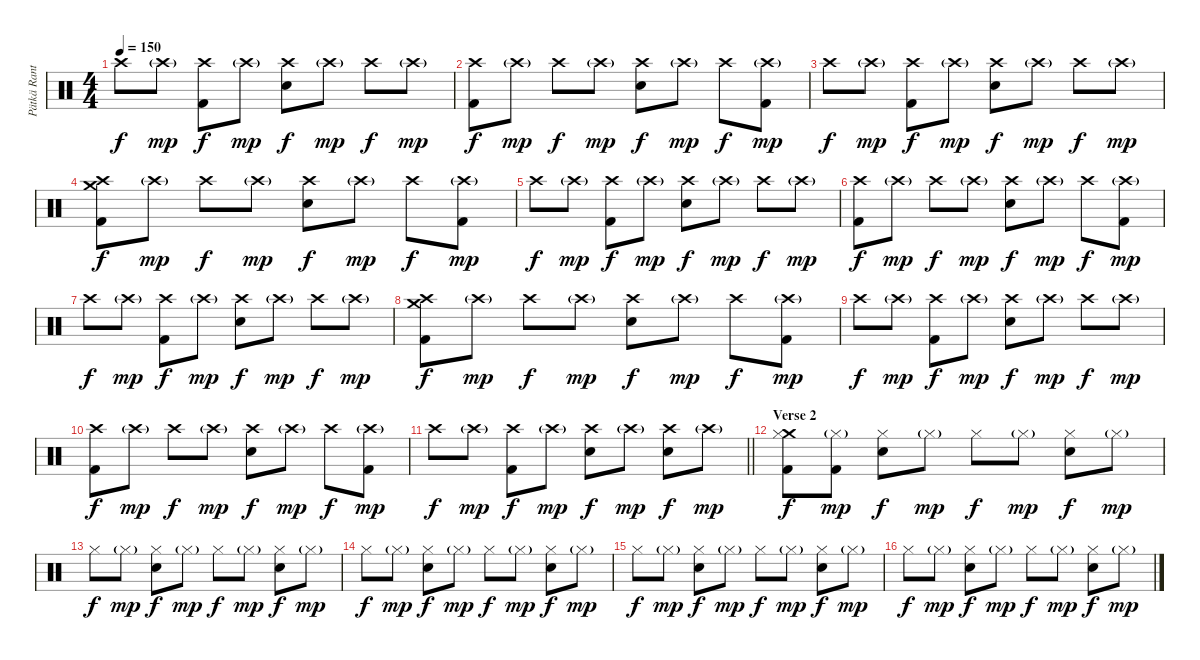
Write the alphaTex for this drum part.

\track ("Pätkä Rantala (Drums)" "Pätkä Rant") {instrument percussion}
\staff {score}
\articulation defaults
\ts (4 4)
\tempo 150
\clef neutral
\ks c "Crash high (hit)".8{dy f} "Crash high (hit)"{g}.8{dy mp}
("Crash high (hit)" "Kick (hit) 2").8{dy f} "Crash high (hit)"{g}.8{dy mp} ("Crash high (hit)" "Snare (hit) 2").8{dy f} "Crash high (hit)"{g}.8{dy mp} "Crash high (hit)".8{dy f} "Crash high (hit)"{g}.8{dy mp} |
("Crash high (hit)" "Kick (hit) 2").8{dy f} "Crash high (hit)"{g}.8{dy mp} "Crash high (hit)".8{dy f} "Crash high (hit)"{g}.8{dy mp} ("Crash high (hit)" "Snare (hit) 2").8{dy f} "Crash high (hit)"{g}.8{dy mp} "Crash high (hit)".8{dy f} ("Crash high (hit)"{g} "Kick (hit) 2").8{dy mp} |
"Crash high (hit)".8{dy f} "Crash high (hit)"{g}.8{dy mp} ("Crash high (hit)" "Kick (hit) 2").8{dy f} "Crash high (hit)"{g}.8{dy mp} ("Crash high (hit)" "Snare (hit) 2").8{dy f} "Crash high (hit)"{g}.8{dy mp} "Crash high (hit)".8{dy f} "Crash high (hit)"{g}.8{dy mp} |
("Crash medium (hit)" "Crash high (hit)" "Kick (hit) 2").8{dy f} "Crash high (hit)"{g}.8{dy mp} "Crash high (hit)".8{dy f} "Crash high (hit)"{g}.8{dy mp} ("Crash high (hit)" "Snare (hit) 2").8{dy f} "Crash high (hit)"{g}.8{dy mp} "Crash high (hit)".8{dy f} ("Crash high (hit)"{g} "Kick (hit) 2").8{dy mp} |
"Crash high (hit)".8{dy f} "Crash high (hit)"{g}.8{dy mp} ("Crash high (hit)" "Kick (hit) 2").8{dy f} "Crash high (hit)"{g}.8{dy mp} ("Crash high (hit)" "Snare (hit) 2").8{dy f} "Crash high (hit)"{g}.8{dy mp} "Crash high (hit)".8{dy f} "Crash high (hit)"{g}.8{dy mp} |
("Crash high (hit)" "Kick (hit) 2").8{dy f} "Crash high (hit)"{g}.8{dy mp} "Crash high (hit)".8{dy f} "Crash high (hit)"{g}.8{dy mp} ("Crash high (hit)" "Snare (hit) 2").8{dy f} "Crash high (hit)"{g}.8{dy mp} "Crash high (hit)".8{dy f} ("Crash high (hit)"{g} "Kick (hit) 2").8{dy mp} |
"Crash high (hit)".8{dy f} "Crash high (hit)"{g}.8{dy mp} ("Crash high (hit)" "Kick (hit) 2").8{dy f} "Crash high (hit)"{g}.8{dy mp} ("Crash high (hit)" "Snare (hit) 2").8{dy f} "Crash high (hit)"{g}.8{dy mp} "Crash high (hit)".8{dy f} "Crash high (hit)"{g}.8{dy mp} |
("Crash medium (hit)" "Crash high (hit)" "Kick (hit) 2").8{dy f} "Crash high (hit)"{g}.8{dy mp} "Crash high (hit)".8{dy f} "Crash high (hit)"{g}.8{dy mp} ("Crash high (hit)" "Snare (hit) 2").8{dy f} "Crash high (hit)"{g}.8{dy mp} "Crash high (hit)".8{dy f} ("Crash high (hit)"{g} "Kick (hit) 2").8{dy mp} |
"Crash high (hit)".8{dy f} "Crash high (hit)"{g}.8{dy mp} ("Crash high (hit)" "Kick (hit) 2").8{dy f} "Crash high (hit)"{g}.8{dy mp} ("Crash high (hit)" "Snare (hit) 2").8{dy f} "Crash high (hit)"{g}.8{dy mp} "Crash high (hit)".8{dy f} "Crash high (hit)"{g}.8{dy mp} |
("Crash high (hit)" "Kick (hit) 2").8{dy f} "Crash high (hit)"{g}.8{dy mp} "Crash high (hit)".8{dy f} "Crash high (hit)"{g}.8{dy mp} ("Crash high (hit)" "Snare (hit) 2").8{dy f} "Crash high (hit)"{g}.8{dy mp} "Crash high (hit)".8{dy f} ("Crash high (hit)"{g} "Kick (hit) 2").8{dy mp} |
\barLineRight lightlight "Crash high (hit)".8{dy f} "Crash high (hit)"{g}.8{dy mp}
("Crash high (hit)" "Kick (hit) 2").8{dy f} "Crash high (hit)"{g}.8{dy mp} ("Crash high (hit)" "Snare (hit) 2").8{dy f} "Crash high (hit)"{g}.8{dy mp} ("Crash high (hit)" "Snare (hit) 2").8{dy f} "Crash high (hit)"{g}.8{dy mp} |
\section ("" "Verse 2")
("Crash medium (hit)" "Hi-Hat (closed)" "Kick (hit) 2").8{dy f} ("Hi-Hat (closed)"{g} "Kick (hit) 2").8{dy mp} ("Hi-Hat (closed)" "Snare (hit) 2").8{dy f} "Hi-Hat (closed)"{g}.8{dy mp} "Hi-Hat (closed)".8{dy f} "Hi-Hat (closed)"{g}.8{dy mp} ("Hi-Hat (closed)" "Snare (hit) 2").8{dy f} "Hi-Hat (closed)"{g}.8{dy mp} |
"Hi-Hat (closed)".8{dy f} "Hi-Hat (closed)"{g}.8{dy mp} ("Hi-Hat (closed)" "Snare (hit) 2").8{dy f} "Hi-Hat (closed)"{g}.8{dy mp} "Hi-Hat (closed)".8{dy f} "Hi-Hat (closed)"{g}.8{dy mp} ("Hi-Hat (closed)" "Snare (hit) 2").8{dy f} "Hi-Hat (closed)"{g}.8{dy mp} |
"Hi-Hat (closed)".8{dy f} "Hi-Hat (closed)"{g}.8{dy mp} ("Hi-Hat (closed)" "Snare (hit) 2").8{dy f} "Hi-Hat (closed)"{g}.8{dy mp} "Hi-Hat (closed)".8{dy f} "Hi-Hat (closed)"{g}.8{dy mp} ("Hi-Hat (closed)" "Snare (hit) 2").8{dy f} "Hi-Hat (closed)"{g}.8{dy mp} |
"Hi-Hat (closed)".8{dy f} "Hi-Hat (closed)"{g}.8{dy mp} ("Hi-Hat (closed)" "Snare (hit) 2").8{dy f} "Hi-Hat (closed)"{g}.8{dy mp} "Hi-Hat (closed)".8{dy f} "Hi-Hat (closed)"{g}.8{dy mp} ("Hi-Hat (closed)" "Snare (hit) 2").8{dy f} "Hi-Hat (closed)"{g}.8{dy mp} |
"Hi-Hat (closed)".8{dy f} "Hi-Hat (closed)"{g}.8{dy mp} ("Hi-Hat (closed)" "Snare (hit) 2").8{dy f} "Hi-Hat (closed)"{g}.8{dy mp} "Hi-Hat (closed)".8{dy f} "Hi-Hat (closed)"{g}.8{dy mp} ("Hi-Hat (closed)" "Snare (hit) 2").8{dy f} "Hi-Hat (closed)"{g}.8{dy mp}
